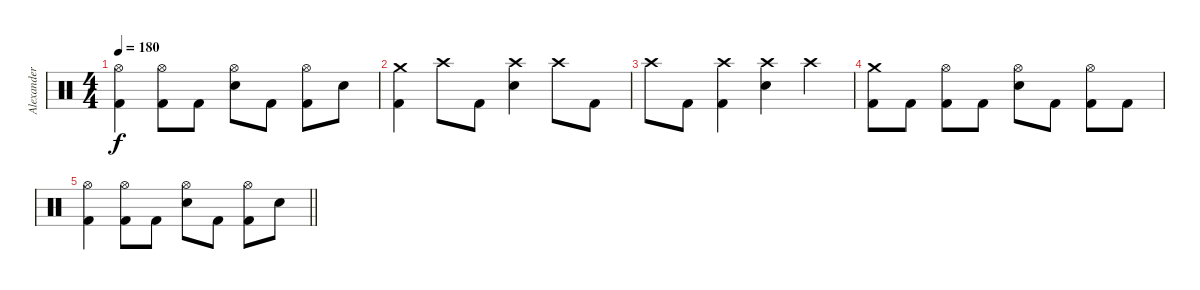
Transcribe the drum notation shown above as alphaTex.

\track ("Alexander Sveningsson" "Alexander ") {instrument percussion}
\staff {score}
\articulation defaults
\ts (4 4)
\tempo 180
\clef neutral
\ks c
("Hi-Hat (open)" "Kick (hit) 2").4{dy f} ("Hi-Hat (open)" "Kick (hit) 2").8 "Kick (hit) 2".8 ("Hi-Hat (open)" "Electric Snare (hit)").8 "Kick (hit) 2".8 ("Hi-Hat (open)" "Kick (hit) 2").8 "Electric Snare (hit)".8 |
("Crash medium (hit)" "Kick (hit) 2").4 "Crash high (hit)".8 "Kick (hit) 2".8 ("Crash high (hit)" "Electric Snare (hit)").4 "Crash high (hit)".8 "Kick (hit) 2".8 |
"Crash high (hit)".8 "Kick (hit) 2".8 ("Crash high (hit)" "Kick (hit) 2").4 ("Crash high (hit)" "Electric Snare (hit)").4 "Crash high (hit)".4 |
("Crash medium (hit)" "Kick (hit) 2").8 "Kick (hit) 2".8 ("Hi-Hat (open)" "Kick (hit) 2").8 "Kick (hit) 2".8 ("Hi-Hat (open)" "Electric Snare (hit)").8 "Kick (hit) 2".8 ("Hi-Hat (open)" "Kick (hit) 2").8 "Kick (hit) 2".8 |
\barLineRight lightlight
("Hi-Hat (open)" "Kick (hit) 2").4 ("Hi-Hat (open)" "Kick (hit) 2").8 "Kick (hit) 2".8 ("Hi-Hat (open)" "Electric Snare (hit)").8 "Kick (hit) 2".8 ("Hi-Hat (open)" "Kick (hit) 2").8 "Electric Snare (hit)".8
